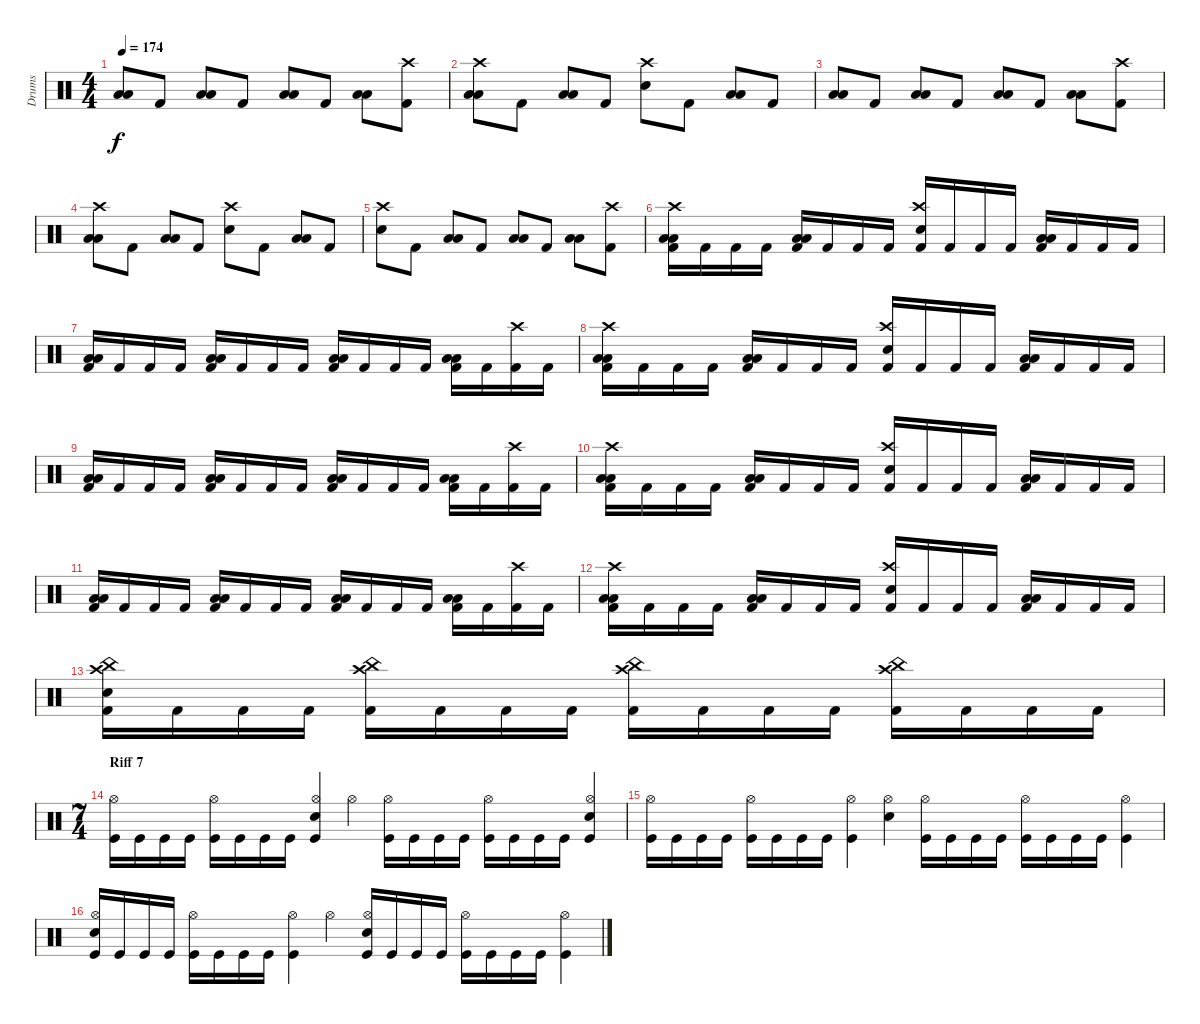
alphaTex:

\track ("Drums" "Drums") {instrument percussion}
\staff {score}
\articulation defaults
\ts (4 4)
\tempo 174
\clef neutral
\ks c
("Low Tom (hit)" "Low Floor Tom (hit)").8{dy f} "Kick (hit) 2".8 ("Low Tom (hit)" "Low Floor Tom (hit)").8 "Kick (hit) 2".8 ("Low Tom (hit)" "Low Floor Tom (hit)").8 "Kick (hit) 2".8 ("Low Tom (hit)" "Low Tom (hit)").8 ("Crash high (hit)" "Kick (hit) 2").8 |
("Crash high (hit)" "Low Tom (hit)" "Low Floor Tom (hit)").8 "Kick (hit) 2".8 ("Low Tom (hit)" "Low Floor Tom (hit)").8 "Kick (hit) 2".8 ("Crash high (hit)" "Electric Snare (hit)").8 "Kick (hit) 2".8 ("Low Tom (hit)" "Low Tom (hit)").8 "Kick (hit) 2".8 |
("Low Tom (hit)" "Low Floor Tom (hit)").8 "Kick (hit) 2".8 ("Low Tom (hit)" "Low Floor Tom (hit)").8 "Kick (hit) 2".8 ("Low Tom (hit)" "Low Floor Tom (hit)").8 "Kick (hit) 2".8 ("Low Tom (hit)" "Low Tom (hit)").8 ("Crash high (hit)" "Kick (hit) 2").8 |
("Crash high (hit)" "Low Tom (hit)" "Low Floor Tom (hit)").8 "Kick (hit) 2".8 ("Low Tom (hit)" "Low Floor Tom (hit)").8 "Kick (hit) 2".8 ("Crash high (hit)" "Electric Snare (hit)").8 "Kick (hit) 2".8 ("Low Tom (hit)" "Low Tom (hit)").8 "Kick (hit) 2".8 |
("Crash high (hit)" "Electric Snare (hit)").8 "Kick (hit) 2".8 ("Low Tom (hit)" "Low Floor Tom (hit)").8 "Kick (hit) 2".8 ("Low Tom (hit)" "Low Floor Tom (hit)").8 "Kick (hit) 2".8 ("Low Tom (hit)" "Low Tom (hit)").8 ("Crash high (hit)" "Kick (hit) 2").8 |
("Crash high (hit)" "Low Tom (hit)" "Low Floor Tom (hit)" "Kick (hit) 2").16 "Kick (hit) 2".16 "Kick (hit) 2".16 "Kick (hit) 2".16 ("Low Tom (hit)" "Low Floor Tom (hit)" "Kick (hit) 2").16 "Kick (hit) 2".16 "Kick (hit) 2".16 "Kick (hit) 2".16 ("Crash high (hit)" "Electric Snare (hit)" "Kick (hit) 2").16 "Kick (hit) 2".16 "Kick (hit) 2".16 "Kick (hit) 2".16 ("Low Tom (hit)" "Low Floor Tom (hit)" "Kick (hit) 2").16 "Kick (hit) 2".16 "Kick (hit) 2".16 "Kick (hit) 2".16 |
("Low Tom (hit)" "Low Floor Tom (hit)" "Kick (hit) 2").16 "Kick (hit) 2".16 "Kick (hit) 2".16 "Kick (hit) 2".16 ("Low Tom (hit)" "Low Floor Tom (hit)" "Kick (hit) 2").16 "Kick (hit) 2".16 "Kick (hit) 2".16 "Kick (hit) 2".16 ("Low Tom (hit)" "Low Floor Tom (hit)" "Kick (hit) 2").16 "Kick (hit) 2".16 "Kick (hit) 2".16 "Kick (hit) 2".16 ("Low Tom (hit)" "Low Floor Tom (hit)" "Kick (hit) 2").16 "Kick (hit) 2".16 ("Crash high (hit)" "Kick (hit) 2").16 "Kick (hit) 2".16 |
("Crash high (hit)" "Low Tom (hit)" "Low Floor Tom (hit)" "Kick (hit) 2").16 "Kick (hit) 2".16 "Kick (hit) 2".16 "Kick (hit) 2".16 ("Low Tom (hit)" "Low Floor Tom (hit)" "Kick (hit) 2").16 "Kick (hit) 2".16 "Kick (hit) 2".16 "Kick (hit) 2".16 ("Crash high (hit)" "Electric Snare (hit)" "Kick (hit) 2").16 "Kick (hit) 2".16 "Kick (hit) 2".16 "Kick (hit) 2".16 ("Low Tom (hit)" "Low Floor Tom (hit)" "Kick (hit) 2").16 "Kick (hit) 2".16 "Kick (hit) 2".16 "Kick (hit) 2".16 |
("Low Tom (hit)" "Low Floor Tom (hit)" "Kick (hit) 2").16 "Kick (hit) 2".16 "Kick (hit) 2".16 "Kick (hit) 2".16 ("Low Tom (hit)" "Low Floor Tom (hit)" "Kick (hit) 2").16 "Kick (hit) 2".16 "Kick (hit) 2".16 "Kick (hit) 2".16 ("Low Tom (hit)" "Low Floor Tom (hit)" "Kick (hit) 2").16 "Kick (hit) 2".16 "Kick (hit) 2".16 "Kick (hit) 2".16 ("Low Tom (hit)" "Low Floor Tom (hit)" "Kick (hit) 2").16 "Kick (hit) 2".16 ("Crash high (hit)" "Kick (hit) 2").16 "Kick (hit) 2".16 |
("Crash high (hit)" "Low Tom (hit)" "Low Floor Tom (hit)" "Kick (hit) 2").16 "Kick (hit) 2".16 "Kick (hit) 2".16 "Kick (hit) 2".16 ("Low Tom (hit)" "Low Floor Tom (hit)" "Kick (hit) 2").16 "Kick (hit) 2".16 "Kick (hit) 2".16 "Kick (hit) 2".16 ("Crash high (hit)" "Electric Snare (hit)" "Kick (hit) 2").16 "Kick (hit) 2".16 "Kick (hit) 2".16 "Kick (hit) 2".16 ("Low Tom (hit)" "Low Floor Tom (hit)" "Kick (hit) 2").16 "Kick (hit) 2".16 "Kick (hit) 2".16 "Kick (hit) 2".16 |
("Low Tom (hit)" "Low Floor Tom (hit)" "Kick (hit) 2").16 "Kick (hit) 2".16 "Kick (hit) 2".16 "Kick (hit) 2".16 ("Low Tom (hit)" "Low Floor Tom (hit)" "Kick (hit) 2").16 "Kick (hit) 2".16 "Kick (hit) 2".16 "Kick (hit) 2".16 ("Low Tom (hit)" "Low Floor Tom (hit)" "Kick (hit) 2").16 "Kick (hit) 2".16 "Kick (hit) 2".16 "Kick (hit) 2".16 ("Low Tom (hit)" "Low Floor Tom (hit)" "Kick (hit) 2").16 "Kick (hit) 2".16 ("Crash high (hit)" "Kick (hit) 2").16 "Kick (hit) 2".16 |
("Crash high (hit)" "Low Tom (hit)" "Low Floor Tom (hit)" "Kick (hit) 2").16 "Kick (hit) 2".16 "Kick (hit) 2".16 "Kick (hit) 2".16 ("Low Tom (hit)" "Low Floor Tom (hit)" "Kick (hit) 2").16 "Kick (hit) 2".16 "Kick (hit) 2".16 "Kick (hit) 2".16 ("Crash high (hit)" "Electric Snare (hit)" "Kick (hit) 2").16 "Kick (hit) 2".16 "Kick (hit) 2".16 "Kick (hit) 2".16 ("Low Tom (hit)" "Low Floor Tom (hit)" "Kick (hit) 2").16 "Kick (hit) 2".16 "Kick (hit) 2".16 "Kick (hit) 2".16 |
("China (hit)" "Crash high (hit)" "Electric Snare (hit)" "Kick (hit) 2").16 "Kick (hit) 2".16 "Kick (hit) 2".16 "Kick (hit) 2".16 ("China (hit)" "Crash high (hit)" "Kick (hit) 2").16 "Kick (hit) 2".16 "Kick (hit) 2".16 "Kick (hit) 2".16 ("China (hit)" "Crash high (hit)" "Kick (hit) 2").16 "Kick (hit) 2".16 "Kick (hit) 2".16 "Kick (hit) 2".16 ("China (hit)" "Crash high (hit)" "Kick (hit) 2").16 "Kick (hit) 2".16 "Kick (hit) 2".16 "Kick (hit) 2".16 |
\ts (7 4)
\section ("" "Riff 7")
("Hi-Hat (open)" "Kick (hit)").16 "Kick (hit)".16 "Kick (hit)".16 "Kick (hit)".16 ("Hi-Hat (open)" "Kick (hit)").16 "Kick (hit)".16 "Kick (hit)".16 "Kick (hit)".16 ("Hi-Hat (open)" "Electric Snare (hit)" "Kick (hit)").4 "Hi-Hat (open)".4 ("Hi-Hat (open)" "Kick (hit)").16 "Kick (hit)".16 "Kick (hit)".16 "Kick (hit)".16 ("Hi-Hat (open)" "Kick (hit)").16 "Kick (hit)".16 "Kick (hit)".16 "Kick (hit)".16 ("Hi-Hat (open)" "Electric Snare (hit)" "Kick (hit)").4 |
("Hi-Hat (open)" "Kick (hit)").16 "Kick (hit)".16 "Kick (hit)".16 "Kick (hit)".16 ("Hi-Hat (open)" "Kick (hit)").16 "Kick (hit)".16 "Kick (hit)".16 "Kick (hit)".16 ("Hi-Hat (open)" "Kick (hit)").4 ("Hi-Hat (open)" "Electric Snare (hit)").4 ("Hi-Hat (open)" "Kick (hit)").16 "Kick (hit)".16 "Kick (hit)".16 "Kick (hit)".16 ("Hi-Hat (open)" "Kick (hit)").16 "Kick (hit)".16 "Kick (hit)".16 "Kick (hit)".16 ("Hi-Hat (open)" "Kick (hit)").4 |
("Hi-Hat (open)" "Electric Snare (hit)" "Kick (hit)").16 "Kick (hit)".16 "Kick (hit)".16 "Kick (hit)".16 ("Hi-Hat (open)" "Kick (hit)").16 "Kick (hit)".16 "Kick (hit)".16 "Kick (hit)".16 ("Hi-Hat (open)" "Kick (hit)").4 "Hi-Hat (open)".4 ("Hi-Hat (open)" "Electric Snare (hit)" "Kick (hit)").16 "Kick (hit)".16 "Kick (hit)".16 "Kick (hit)".16 ("Hi-Hat (open)" "Kick (hit)").16 "Kick (hit)".16 "Kick (hit)".16 "Kick (hit)".16 ("Hi-Hat (open)" "Kick (hit)").4
